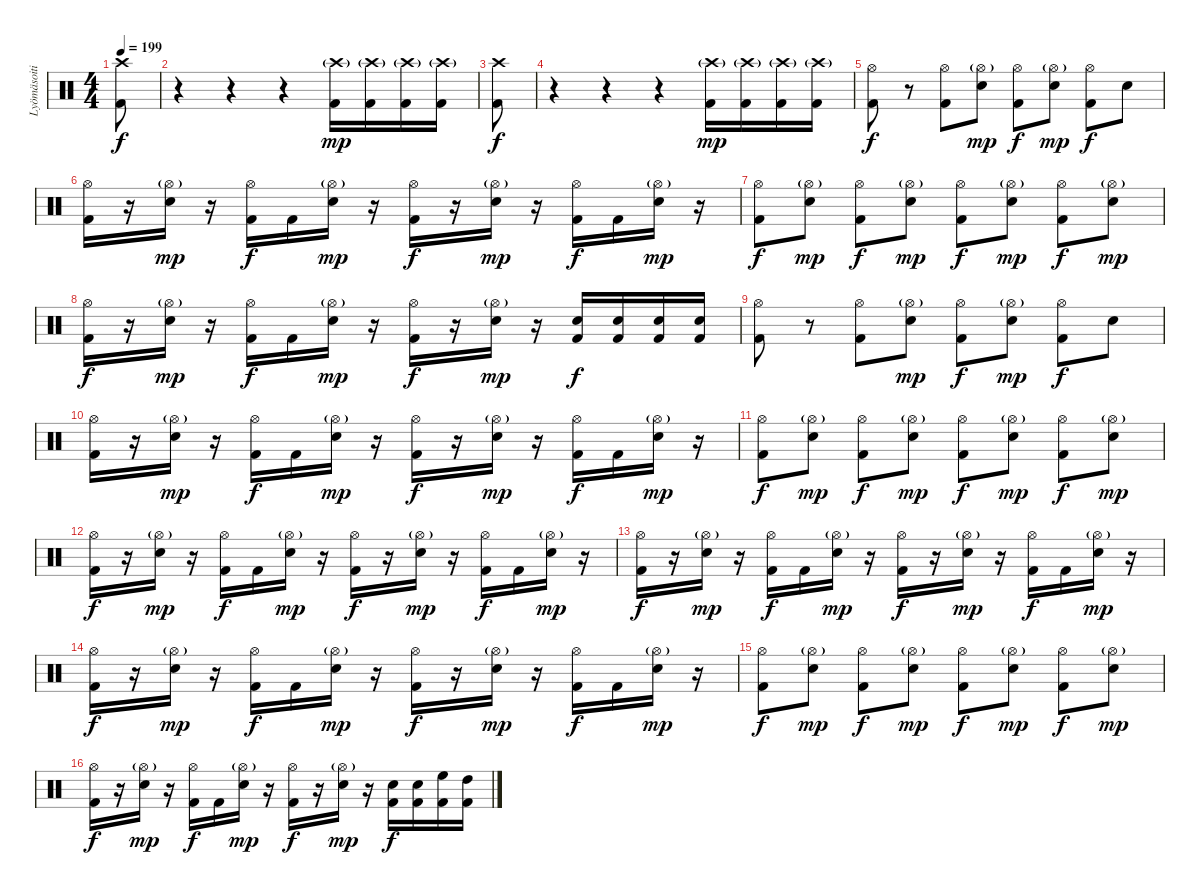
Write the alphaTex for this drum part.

\track ("Lyömäsoitin" "Lyömäsoiti") {instrument percussion}
\staff {score}
\articulation defaults
\ts (4 4)
\tempo 199
\clef neutral
\ks c
("Kick (hit) 2" "Crash high (hit)").8{dy f} |
r.4 r.4 r.4 ("Kick (hit) 2" "Crash high (hit)"{g}).16{dy mp} ("Kick (hit) 2" "Crash high (hit)"{g}).16 ("Kick (hit) 2" "Crash high (hit)"{g}).16 ("Kick (hit) 2" "Crash high (hit)"{g}).16 |
("Kick (hit) 2" "Crash high (hit)").8{dy f} |
r.4 r.4 r.4 ("Kick (hit) 2" "Crash high (hit)"{g}).16{dy mp} ("Kick (hit) 2" "Crash high (hit)"{g}).16 ("Kick (hit) 2" "Crash high (hit)"{g}).16 ("Kick (hit) 2" "Crash high (hit)"{g}).16 |
("Kick (hit) 2" "Hi-Hat (open)").8{dy f} r.8 ("Kick (hit) 2" "Hi-Hat (open)").8 ("Snare (hit) 2" "Hi-Hat (open)"{g}).8{dy mp} ("Kick (hit) 2" "Hi-Hat (open)").8{dy f} ("Snare (hit) 2" "Hi-Hat (open)"{g}).8{dy mp} ("Kick (hit) 2" "Hi-Hat (open)").8{dy f} "Snare (hit) 2".8 |
("Kick (hit) 2" "Hi-Hat (open)").16 r.16 ("Snare (hit) 2" "Hi-Hat (open)"{g}).16{dy mp} r.16 ("Kick (hit) 2" "Hi-Hat (open)").16{dy f} "Kick (hit) 2".16 ("Snare (hit) 2" "Hi-Hat (open)"{g}).16{dy mp} r.16 ("Kick (hit) 2" "Hi-Hat (open)").16{dy f} r.16 ("Snare (hit) 2" "Hi-Hat (open)"{g}).16{dy mp} r.16 ("Kick (hit) 2" "Hi-Hat (open)").16{dy f} "Kick (hit) 2".16 ("Snare (hit) 2" "Hi-Hat (open)"{g}).16{dy mp} r.16 |
("Kick (hit) 2" "Hi-Hat (open)").8{dy f} ("Snare (hit) 2" "Hi-Hat (open)"{g}).8{dy mp} ("Kick (hit) 2" "Hi-Hat (open)").8{dy f} ("Snare (hit) 2" "Hi-Hat (open)"{g}).8{dy mp} ("Kick (hit) 2" "Hi-Hat (open)").8{dy f} ("Snare (hit) 2" "Hi-Hat (open)"{g}).8{dy mp} ("Kick (hit) 2" "Hi-Hat (open)").8{dy f} ("Snare (hit) 2" "Hi-Hat (open)"{g}).8{dy mp} |
("Kick (hit) 2" "Hi-Hat (open)").16{dy f} r.16 ("Snare (hit) 2" "Hi-Hat (open)"{g}).16{dy mp} r.16 ("Kick (hit) 2" "Hi-Hat (open)").16{dy f} "Kick (hit) 2".16 ("Snare (hit) 2" "Hi-Hat (open)"{g}).16{dy mp} r.16 ("Kick (hit) 2" "Hi-Hat (open)").16{dy f} r.16 ("Snare (hit) 2" "Hi-Hat (open)"{g}).16{dy mp} r.16 ("Snare (hit) 2" "Kick (hit) 2").16{dy f} ("Snare (hit) 2" "Kick (hit) 2").16 ("Snare (hit) 2" "Kick (hit) 2").16 ("Snare (hit) 2" "Kick (hit) 2").16 |
("Kick (hit) 2" "Hi-Hat (open)").8 r.8 ("Kick (hit) 2" "Hi-Hat (open)").8 ("Snare (hit) 2" "Hi-Hat (open)"{g}).8{dy mp} ("Kick (hit) 2" "Hi-Hat (open)").8{dy f} ("Snare (hit) 2" "Hi-Hat (open)"{g}).8{dy mp} ("Kick (hit) 2" "Hi-Hat (open)").8{dy f} "Snare (hit) 2".8 |
("Kick (hit) 2" "Hi-Hat (open)").16 r.16 ("Snare (hit) 2" "Hi-Hat (open)"{g}).16{dy mp} r.16 ("Kick (hit) 2" "Hi-Hat (open)").16{dy f} "Kick (hit) 2".16 ("Snare (hit) 2" "Hi-Hat (open)"{g}).16{dy mp} r.16 ("Kick (hit) 2" "Hi-Hat (open)").16{dy f} r.16 ("Snare (hit) 2" "Hi-Hat (open)"{g}).16{dy mp} r.16 ("Kick (hit) 2" "Hi-Hat (open)").16{dy f} "Kick (hit) 2".16 ("Snare (hit) 2" "Hi-Hat (open)"{g}).16{dy mp} r.16 |
("Kick (hit) 2" "Hi-Hat (open)").8{dy f} ("Snare (hit) 2" "Hi-Hat (open)"{g}).8{dy mp} ("Kick (hit) 2" "Hi-Hat (open)").8{dy f} ("Snare (hit) 2" "Hi-Hat (open)"{g}).8{dy mp} ("Kick (hit) 2" "Hi-Hat (open)").8{dy f} ("Snare (hit) 2" "Hi-Hat (open)"{g}).8{dy mp} ("Kick (hit) 2" "Hi-Hat (open)").8{dy f} ("Snare (hit) 2" "Hi-Hat (open)"{g}).8{dy mp} |
("Kick (hit) 2" "Hi-Hat (open)").16{dy f} r.16 ("Snare (hit) 2" "Hi-Hat (open)"{g}).16{dy mp} r.16 ("Kick (hit) 2" "Hi-Hat (open)").16{dy f} "Kick (hit) 2".16 ("Snare (hit) 2" "Hi-Hat (open)"{g}).16{dy mp} r.16 ("Kick (hit) 2" "Hi-Hat (open)").16{dy f} r.16 ("Snare (hit) 2" "Hi-Hat (open)"{g}).16{dy mp} r.16 ("Kick (hit) 2" "Hi-Hat (open)").16{dy f} "Kick (hit) 2".16 ("Snare (hit) 2" "Hi-Hat (open)"{g}).16{dy mp} r.16 |
("Kick (hit) 2" "Hi-Hat (open)").16{dy f} r.16 ("Snare (hit) 2" "Hi-Hat (open)"{g}).16{dy mp} r.16 ("Kick (hit) 2" "Hi-Hat (open)").16{dy f} "Kick (hit) 2".16 ("Snare (hit) 2" "Hi-Hat (open)"{g}).16{dy mp} r.16 ("Kick (hit) 2" "Hi-Hat (open)").16{dy f} r.16 ("Snare (hit) 2" "Hi-Hat (open)"{g}).16{dy mp} r.16 ("Kick (hit) 2" "Hi-Hat (open)").16{dy f} "Kick (hit) 2".16 ("Snare (hit) 2" "Hi-Hat (open)"{g}).16{dy mp} r.16 |
("Kick (hit) 2" "Hi-Hat (open)").16{dy f} r.16 ("Snare (hit) 2" "Hi-Hat (open)"{g}).16{dy mp} r.16 ("Kick (hit) 2" "Hi-Hat (open)").16{dy f} "Kick (hit) 2".16 ("Snare (hit) 2" "Hi-Hat (open)"{g}).16{dy mp} r.16 ("Kick (hit) 2" "Hi-Hat (open)").16{dy f} r.16 ("Snare (hit) 2" "Hi-Hat (open)"{g}).16{dy mp} r.16 ("Kick (hit) 2" "Hi-Hat (open)").16{dy f} "Kick (hit) 2".16 ("Snare (hit) 2" "Hi-Hat (open)"{g}).16{dy mp} r.16 |
("Kick (hit) 2" "Hi-Hat (open)").8{dy f} ("Snare (hit) 2" "Hi-Hat (open)"{g}).8{dy mp} ("Kick (hit) 2" "Hi-Hat (open)").8{dy f} ("Snare (hit) 2" "Hi-Hat (open)"{g}).8{dy mp} ("Kick (hit) 2" "Hi-Hat (open)").8{dy f} ("Snare (hit) 2" "Hi-Hat (open)"{g}).8{dy mp} ("Kick (hit) 2" "Hi-Hat (open)").8{dy f} ("Snare (hit) 2" "Hi-Hat (open)"{g}).8{dy mp} |
("Kick (hit) 2" "Hi-Hat (open)").16{dy f} r.16 ("Snare (hit) 2" "Hi-Hat (open)"{g}).16{dy mp} r.16 ("Kick (hit) 2" "Hi-Hat (open)").16{dy f} "Kick (hit) 2".16 ("Snare (hit) 2" "Hi-Hat (open)"{g}).16{dy mp} r.16 ("Kick (hit) 2" "Hi-Hat (open)").16{dy f} r.16 ("Snare (hit) 2" "Hi-Hat (open)"{g}).16{dy mp} r.16 ("Snare (hit) 2" "Kick (hit) 2").16{dy f} ("Snare (hit) 2" "Kick (hit) 2").16 ("High Floor Tom (hit)" "Kick (hit) 2").16 ("High Tom (hit)" "Kick (hit) 2").16
